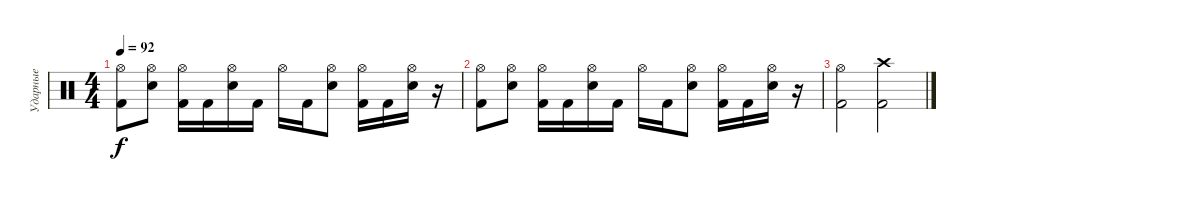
\track ("Ударные" "Ударные") {instrument percussion}
\staff {score}
\articulation defaults
\ts (4 4)
\tempo 92
\clef neutral
\ks c
("Hi-Hat (open)" "Kick (hit) 2").8{dy f} ("Hi-Hat (open)" "Electric Snare (hit)").8 ("Hi-Hat (open)" "Kick (hit) 2").16 "Kick (hit) 2".16 ("Hi-Hat (open)" "Electric Snare (hit)").16 "Kick (hit) 2".16 "Hi-Hat (open)".16 "Kick (hit) 2".16 ("Hi-Hat (open)" "Electric Snare (hit)").8 ("Hi-Hat (open)" "Kick (hit) 2").16 "Kick (hit) 2".16 ("Hi-Hat (open)" "Electric Snare (hit)").16 r.16 |
("Hi-Hat (open)" "Kick (hit) 2").8 ("Hi-Hat (open)" "Electric Snare (hit)").8 ("Hi-Hat (open)" "Kick (hit) 2").16 "Kick (hit) 2".16 ("Hi-Hat (open)" "Electric Snare (hit)").16 "Kick (hit) 2".16 "Hi-Hat (open)".16 "Kick (hit) 2".16 ("Hi-Hat (open)" "Electric Snare (hit)").8 ("Hi-Hat (open)" "Kick (hit) 2").16 "Kick (hit) 2".16 ("Hi-Hat (open)" "Electric Snare (hit)").16 r.16 |
("Kick (hit) 2" "Hi-Hat (open)").2 ("Kick (hit) 2" "Crash high (hit)").2
